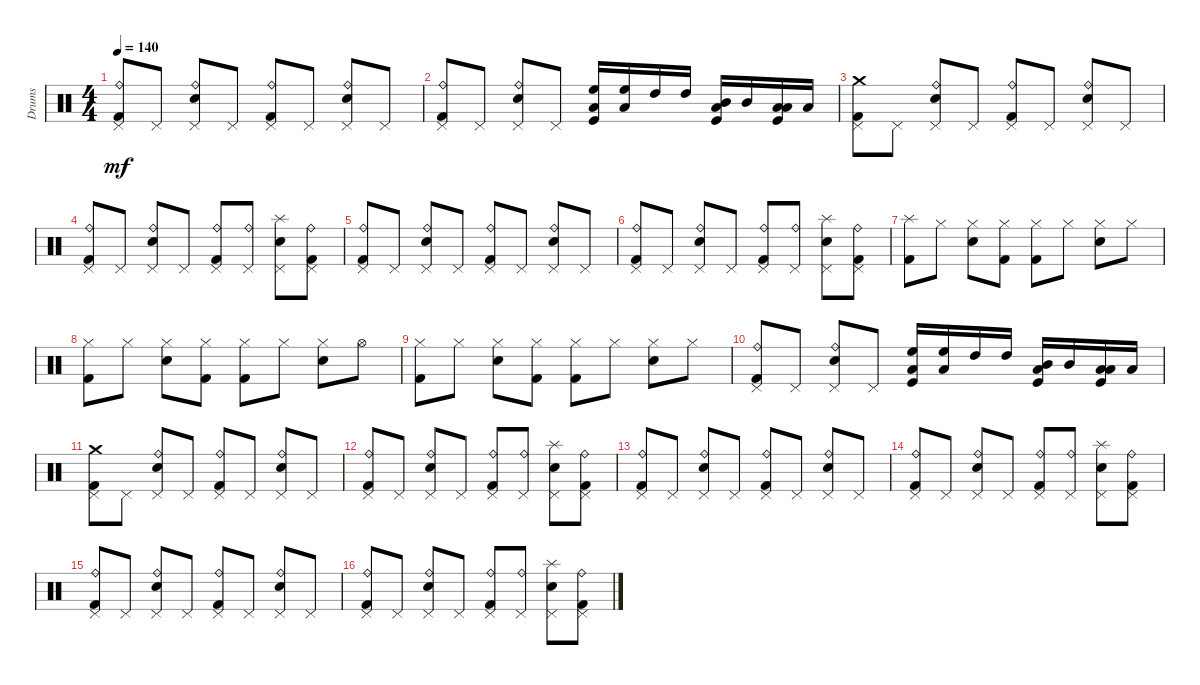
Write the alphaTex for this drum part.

\track ("Drums" "Drums") {instrument percussion}
\staff {score}
\articulation defaults
\ts (4 4)
\tempo 140
\clef neutral
\ks c
("Ride (bell)" "Pedal Hi-Hat (hit)" "Kick (hit) 2").8{dy mf} "Pedal Hi-Hat (hit)".8 ("Ride (bell)" "Pedal Hi-Hat (hit)" "Snare (hit) 2").8 "Pedal Hi-Hat (hit)".8 ("Ride (bell)" "Pedal Hi-Hat (hit)" "Kick (hit) 2").8 "Pedal Hi-Hat (hit)".8 ("Ride (bell)" "Pedal Hi-Hat (hit)" "Snare (hit) 2").8 "Pedal Hi-Hat (hit)".8 |
("Ride (bell)" "Pedal Hi-Hat (hit)" "Kick (hit) 2").8 "Pedal Hi-Hat (hit)".8 ("Ride (bell)" "Pedal Hi-Hat (hit)" "Snare (hit) 2").8 "Pedal Hi-Hat (hit)".8 ("High Floor Tom (hit)" "Low Floor Tom (hit)" "Kick (hit)").16 ("High Floor Tom (hit)" "Low Floor Tom (hit)").16 "High Tom (hit)".16 "High Tom (hit)".16 ("Mid Tom (hit)" "Low Floor Tom (hit)" "Kick (hit)").16 "Mid Tom (hit)".16 ("Low Tom (hit)" "Low Floor Tom (hit)" "Kick (hit)").16 "Low Tom (hit)".16 |
("Crash medium (hit)" "Pedal Hi-Hat (hit)" "Kick (hit) 2").8 "Pedal Hi-Hat (hit)".8 ("Ride (bell)" "Pedal Hi-Hat (hit)" "Snare (hit) 2").8 "Pedal Hi-Hat (hit)".8 ("Ride (bell)" "Pedal Hi-Hat (hit)" "Kick (hit) 2").8 "Pedal Hi-Hat (hit)".8 ("Ride (bell)" "Pedal Hi-Hat (hit)" "Snare (hit) 2").8 "Pedal Hi-Hat (hit)".8 |
("Ride (bell)" "Pedal Hi-Hat (hit)" "Kick (hit) 2").8 "Pedal Hi-Hat (hit)".8 ("Ride (bell)" "Pedal Hi-Hat (hit)" "Snare (hit) 2").8 "Pedal Hi-Hat (hit)".8 ("Ride (bell)" "Pedal Hi-Hat (hit)" "Kick (hit) 2").8 ("Ride (bell)" "Pedal Hi-Hat (hit)").8 ("Splash (hit)" "Pedal Hi-Hat (hit)" "Snare (hit) 2").8 ("Ride (bell)" "Pedal Hi-Hat (hit)" "Kick (hit) 2").8 |
("Ride (bell)" "Pedal Hi-Hat (hit)" "Kick (hit) 2").8 "Pedal Hi-Hat (hit)".8 ("Ride (bell)" "Pedal Hi-Hat (hit)" "Snare (hit) 2").8 "Pedal Hi-Hat (hit)".8 ("Ride (bell)" "Pedal Hi-Hat (hit)" "Kick (hit) 2").8 "Pedal Hi-Hat (hit)".8 ("Ride (bell)" "Pedal Hi-Hat (hit)" "Snare (hit) 2").8 "Pedal Hi-Hat (hit)".8 |
("Ride (bell)" "Pedal Hi-Hat (hit)" "Kick (hit) 2").8 "Pedal Hi-Hat (hit)".8 ("Ride (bell)" "Pedal Hi-Hat (hit)" "Snare (hit) 2").8 "Pedal Hi-Hat (hit)".8 ("Ride (bell)" "Pedal Hi-Hat (hit)" "Kick (hit) 2").8 ("Ride (bell)" "Pedal Hi-Hat (hit)").8 ("Splash (hit)" "Pedal Hi-Hat (hit)" "Snare (hit) 2").8 ("Ride (bell)" "Pedal Hi-Hat (hit)" "Kick (hit) 2").8 |
("Splash (hit)" "Kick (hit) 2").8 "Hi-Hat (closed)".8 ("Hi-Hat (closed)" "Snare (hit) 2").8 ("Hi-Hat (closed)" "Kick (hit) 2").8 ("Hi-Hat (closed)" "Kick (hit) 2").8 "Hi-Hat (closed)".8 ("Hi-Hat (closed)" "Snare (hit) 2").8 "Hi-Hat (closed)".8 |
("Hi-Hat (closed)" "Kick (hit) 2").8 "Hi-Hat (closed)".8 ("Hi-Hat (closed)" "Snare (hit) 2").8 ("Hi-Hat (closed)" "Kick (hit) 2").8 ("Hi-Hat (closed)" "Kick (hit) 2").8 "Hi-Hat (closed)".8 ("Hi-Hat (closed)" "Snare (hit) 2").8 "Hi-Hat (open)".8 |
("Hi-Hat (closed)" "Kick (hit) 2").8 "Hi-Hat (closed)".8 ("Hi-Hat (closed)" "Snare (hit) 2").8 ("Hi-Hat (closed)" "Kick (hit) 2").8 ("Hi-Hat (closed)" "Kick (hit) 2").8 "Hi-Hat (closed)".8 ("Hi-Hat (closed)" "Snare (hit) 2").8 "Hi-Hat (closed)".8 |
("Ride (bell)" "Pedal Hi-Hat (hit)" "Kick (hit) 2").8 "Pedal Hi-Hat (hit)".8 ("Ride (bell)" "Pedal Hi-Hat (hit)" "Snare (hit) 2").8 "Pedal Hi-Hat (hit)".8 ("High Floor Tom (hit)" "Low Floor Tom (hit)" "Kick (hit)").16 ("High Floor Tom (hit)" "Low Floor Tom (hit)").16 "High Tom (hit)".16 "High Tom (hit)".16 ("Mid Tom (hit)" "Low Floor Tom (hit)" "Kick (hit)").16 "Mid Tom (hit)".16 ("Low Tom (hit)" "Low Floor Tom (hit)" "Kick (hit)").16 "Low Tom (hit)".16 |
("Crash medium (hit)" "Pedal Hi-Hat (hit)" "Kick (hit) 2").8 "Pedal Hi-Hat (hit)".8 ("Ride (bell)" "Pedal Hi-Hat (hit)" "Snare (hit) 2").8 "Pedal Hi-Hat (hit)".8 ("Ride (bell)" "Pedal Hi-Hat (hit)" "Kick (hit) 2").8 "Pedal Hi-Hat (hit)".8 ("Ride (bell)" "Pedal Hi-Hat (hit)" "Snare (hit) 2").8 "Pedal Hi-Hat (hit)".8 |
("Ride (bell)" "Pedal Hi-Hat (hit)" "Kick (hit) 2").8 "Pedal Hi-Hat (hit)".8 ("Ride (bell)" "Pedal Hi-Hat (hit)" "Snare (hit) 2").8 "Pedal Hi-Hat (hit)".8 ("Ride (bell)" "Pedal Hi-Hat (hit)" "Kick (hit) 2").8 ("Ride (bell)" "Pedal Hi-Hat (hit)").8 ("Splash (hit)" "Pedal Hi-Hat (hit)" "Snare (hit) 2").8 ("Ride (bell)" "Pedal Hi-Hat (hit)" "Kick (hit) 2").8 |
("Ride (bell)" "Pedal Hi-Hat (hit)" "Kick (hit) 2").8 "Pedal Hi-Hat (hit)".8 ("Ride (bell)" "Pedal Hi-Hat (hit)" "Snare (hit) 2").8 "Pedal Hi-Hat (hit)".8 ("Ride (bell)" "Pedal Hi-Hat (hit)" "Kick (hit) 2").8 "Pedal Hi-Hat (hit)".8 ("Ride (bell)" "Pedal Hi-Hat (hit)" "Snare (hit) 2").8 "Pedal Hi-Hat (hit)".8 |
("Ride (bell)" "Pedal Hi-Hat (hit)" "Kick (hit) 2").8 "Pedal Hi-Hat (hit)".8 ("Ride (bell)" "Pedal Hi-Hat (hit)" "Snare (hit) 2").8 "Pedal Hi-Hat (hit)".8 ("Ride (bell)" "Pedal Hi-Hat (hit)" "Kick (hit) 2").8 ("Ride (bell)" "Pedal Hi-Hat (hit)").8 ("Splash (hit)" "Pedal Hi-Hat (hit)" "Snare (hit) 2").8 ("Ride (bell)" "Pedal Hi-Hat (hit)" "Kick (hit) 2").8 |
("Ride (bell)" "Pedal Hi-Hat (hit)" "Kick (hit) 2").8 "Pedal Hi-Hat (hit)".8 ("Ride (bell)" "Pedal Hi-Hat (hit)" "Snare (hit) 2").8 "Pedal Hi-Hat (hit)".8 ("Ride (bell)" "Pedal Hi-Hat (hit)" "Kick (hit) 2").8 "Pedal Hi-Hat (hit)".8 ("Ride (bell)" "Pedal Hi-Hat (hit)" "Snare (hit) 2").8 "Pedal Hi-Hat (hit)".8 |
("Ride (bell)" "Pedal Hi-Hat (hit)" "Kick (hit) 2").8 "Pedal Hi-Hat (hit)".8 ("Ride (bell)" "Pedal Hi-Hat (hit)" "Snare (hit) 2").8 "Pedal Hi-Hat (hit)".8 ("Ride (bell)" "Pedal Hi-Hat (hit)" "Kick (hit) 2").8 ("Ride (bell)" "Pedal Hi-Hat (hit)").8 ("Splash (hit)" "Pedal Hi-Hat (hit)" "Snare (hit) 2").8 ("Ride (bell)" "Pedal Hi-Hat (hit)" "Kick (hit) 2").8
